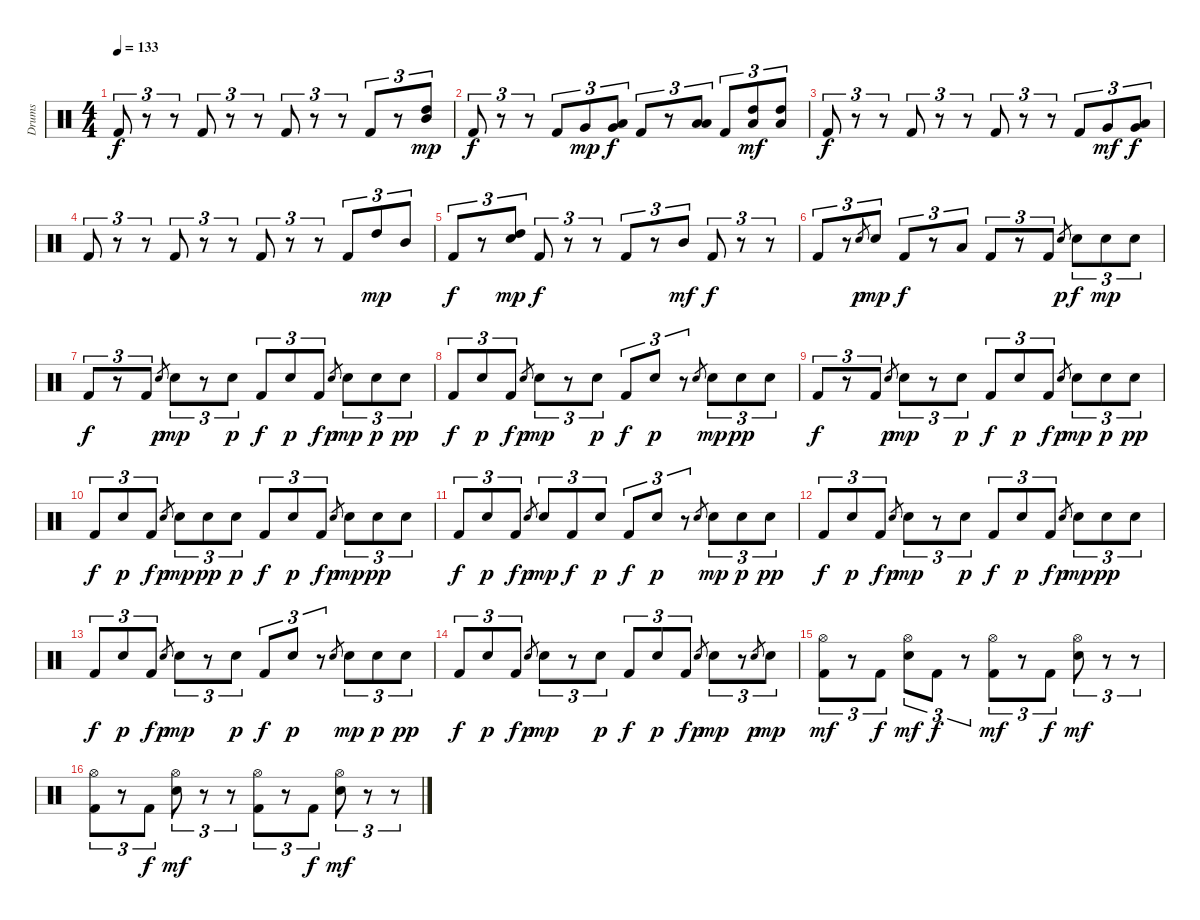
\track ("Drums" "Drums") {instrument percussion}
\staff {score}
\articulation defaults
\ts (4 4)
\tempo 133
\clef neutral
\ks c "Kick (hit) 2".8{tu (3 2) dy f}
r.8{tu (3 2)} r.8{tu (3 2)} "Kick (hit) 2".8{tu (3 2)} r.8{tu (3 2)} r.8{tu (3 2)} "Kick (hit) 2".8{tu (3 2)} r.8{tu (3 2)} r.8{tu (3 2)} "Kick (hit) 2".8{tu (3 2)} r.8{tu (3 2)} ("Mid Tom (hit)" "High Tom (hit)").8{tu (3 2) dy mp} |
"Kick (hit) 2".8{tu (3 2) dy f} r.8{tu (3 2)} r.8{tu (3 2)} "Kick (hit) 2".8{tu (3 2)} "Very Low Tom (hit)".8{tu (3 2) dy mp} ("Low Floor Tom (hit)" "Very Low Tom (hit)").8{tu (3 2) dy f} "Kick (hit) 2".8{tu (3 2)} r.8{tu (3 2)} ("Low Tom (hit)" "Low Floor Tom (hit)").8{tu (3 2)} "Kick (hit) 2".8{tu (3 2)} ("High Tom (hit)" "Low Tom (hit)").8{tu (3 2) dy mf} ("High Tom (hit)" "Low Tom (hit)").8{tu (3 2)} |
"Kick (hit) 2".8{tu (3 2) dy f} r.8{tu (3 2)} r.8{tu (3 2)} "Kick (hit) 2".8{tu (3 2)} r.8{tu (3 2)} r.8{tu (3 2)} "Kick (hit) 2".8{tu (3 2)} r.8{tu (3 2)} r.8{tu (3 2)} "Kick (hit) 2".8{tu (3 2)} "Very Low Tom (hit)".8{tu (3 2) dy mf} ("Low Tom (hit)" "Very Low Tom (hit)").8{tu (3 2) dy f} |
"Kick (hit) 2".8{tu (3 2)} r.8{tu (3 2)} r.8{tu (3 2)} "Kick (hit) 2".8{tu (3 2)} r.8{tu (3 2)} r.8{tu (3 2)} "Kick (hit) 2".8{tu (3 2)} r.8{tu (3 2)} r.8{tu (3 2)} "Kick (hit) 2".8{tu (3 2)} "High Tom (hit)".8{tu (3 2) dy mp} "Mid Tom (hit)".8{tu (3 2)} |
"Kick (hit) 2".8{tu (3 2) dy f} r.8{tu (3 2)} ("Electric Snare (hit)" "High Tom (hit)").8{tu (3 2) dy mp} "Kick (hit) 2".8{tu (3 2) dy f} r.8{tu (3 2)} r.8{tu (3 2)} "Kick (hit) 2".8{tu (3 2)} r.8{tu (3 2)} "Mid Tom (hit)".8{tu (3 2) dy mf} "Kick (hit) 2".8{tu (3 2) dy f} r.8{tu (3 2)} r.8{tu (3 2)} |
"Kick (hit) 2".8{tu (3 2)} r.8{tu (3 2)} "Electric Snare (hit)".8{gr dy p} "Electric Snare (hit)".8{tu (3 2) dy mp} "Kick (hit) 2".8{tu (3 2) dy f} r.8{tu (3 2)} "Low Tom (hit)".8{tu (3 2)} "Kick (hit) 2".8{tu (3 2)} r.8{tu (3 2)} "Kick (hit) 2".8{tu (3 2)} "Electric Snare (hit)".8{gr dy p} "Electric Snare (hit)".8{tu (3 2) dy f} "Electric Snare (hit)".8{tu (3 2) dy mp} "Electric Snare (hit)".8{tu (3 2)} |
"Kick (hit) 2".8{tu (3 2) dy f} r.8{tu (3 2)} "Kick (hit) 2".8{tu (3 2)} "Electric Snare (hit)".8{gr dy p} "Electric Snare (hit)".8{tu (3 2) dy mp} r.8{tu (3 2)} "Electric Snare (hit)".8{tu (3 2) dy p} "Kick (hit) 2".8{tu (3 2) dy f} "Electric Snare (hit)".8{tu (3 2) dy p} "Kick (hit) 2".8{tu (3 2) dy f} "Electric Snare (hit)".8{gr dy p} "Electric Snare (hit)".8{tu (3 2) dy mp} "Electric Snare (hit)".8{tu (3 2) dy p} "Electric Snare (hit)".8{tu (3 2) dy pp} |
"Kick (hit) 2".8{tu (3 2) dy f} "Electric Snare (hit)".8{tu (3 2) dy p} "Kick (hit) 2".8{tu (3 2) dy f} "Electric Snare (hit)".8{gr dy p} "Electric Snare (hit)".8{tu (3 2) dy mp} r.8{tu (3 2)} "Electric Snare (hit)".8{tu (3 2) dy p} "Kick (hit) 2".8{tu (3 2) dy f} "Electric Snare (hit)".8{tu (3 2) dy p} r.8{tu (3 2)} "Electric Snare (hit)".8{gr} "Electric Snare (hit)".8{tu (3 2) dy mp} "Electric Snare (hit)".8{tu (3 2) dy pp} "Electric Snare (hit)".8{tu (3 2)} |
"Kick (hit) 2".8{tu (3 2) dy f} r.8{tu (3 2)} "Kick (hit) 2".8{tu (3 2)} "Electric Snare (hit)".8{gr dy p} "Electric Snare (hit)".8{tu (3 2) dy mp} r.8{tu (3 2)} "Electric Snare (hit)".8{tu (3 2) dy p} "Kick (hit) 2".8{tu (3 2) dy f} "Electric Snare (hit)".8{tu (3 2) dy p} "Kick (hit) 2".8{tu (3 2) dy f} "Electric Snare (hit)".8{gr dy p} "Electric Snare (hit)".8{tu (3 2) dy mp} "Electric Snare (hit)".8{tu (3 2) dy p} "Electric Snare (hit)".8{tu (3 2) dy pp} |
"Kick (hit) 2".8{tu (3 2) dy f} "Electric Snare (hit)".8{tu (3 2) dy p} "Kick (hit) 2".8{tu (3 2) dy f} "Electric Snare (hit)".8{gr dy p} "Electric Snare (hit)".8{tu (3 2) dy mp} "Electric Snare (hit)".8{tu (3 2) dy pp} "Electric Snare (hit)".8{tu (3 2) dy p} "Kick (hit) 2".8{tu (3 2) dy f} "Electric Snare (hit)".8{tu (3 2) dy p} "Kick (hit) 2".8{tu (3 2) dy f} "Electric Snare (hit)".8{gr dy p} "Electric Snare (hit)".8{tu (3 2) dy mp} "Electric Snare (hit)".8{tu (3 2) dy pp} "Electric Snare (hit)".8{tu (3 2)} |
"Kick (hit) 2".8{tu (3 2) dy f} "Electric Snare (hit)".8{tu (3 2) dy p} "Kick (hit) 2".8{tu (3 2) dy f} "Electric Snare (hit)".8{gr dy p} "Electric Snare (hit)".8{tu (3 2) dy mp} "Kick (hit) 2".8{tu (3 2) dy f} "Electric Snare (hit)".8{tu (3 2) dy p} "Kick (hit) 2".8{tu (3 2) dy f} "Electric Snare (hit)".8{tu (3 2) dy p} r.8{tu (3 2)} "Electric Snare (hit)".8{gr} "Electric Snare (hit)".8{tu (3 2) dy mp} "Electric Snare (hit)".8{tu (3 2) dy p} "Electric Snare (hit)".8{tu (3 2) dy pp} |
"Kick (hit) 2".8{tu (3 2) dy f} "Electric Snare (hit)".8{tu (3 2) dy p} "Kick (hit) 2".8{tu (3 2) dy f} "Electric Snare (hit)".8{gr dy p} "Electric Snare (hit)".8{tu (3 2) dy mp} r.8{tu (3 2)} "Electric Snare (hit)".8{tu (3 2) dy p} "Kick (hit) 2".8{tu (3 2) dy f} "Electric Snare (hit)".8{tu (3 2) dy p} "Kick (hit) 2".8{tu (3 2) dy f} "Electric Snare (hit)".8{gr dy p} "Electric Snare (hit)".8{tu (3 2) dy mp} "Electric Snare (hit)".8{tu (3 2) dy pp} "Electric Snare (hit)".8{tu (3 2)} |
"Kick (hit) 2".8{tu (3 2) dy f} "Electric Snare (hit)".8{tu (3 2) dy p} "Kick (hit) 2".8{tu (3 2) dy f} "Electric Snare (hit)".8{gr dy p} "Electric Snare (hit)".8{tu (3 2) dy mp} r.8{tu (3 2)} "Electric Snare (hit)".8{tu (3 2) dy p} "Kick (hit) 2".8{tu (3 2) dy f} "Electric Snare (hit)".8{tu (3 2) dy p} r.8{tu (3 2)} "Electric Snare (hit)".8{gr} "Electric Snare (hit)".8{tu (3 2) dy mp} "Electric Snare (hit)".8{tu (3 2) dy p} "Electric Snare (hit)".8{tu (3 2) dy pp} |
"Kick (hit) 2".8{tu (3 2) dy f} "Electric Snare (hit)".8{tu (3 2) dy p} "Kick (hit) 2".8{tu (3 2) dy f} "Electric Snare (hit)".8{gr dy p} "Electric Snare (hit)".8{tu (3 2) dy mp} r.8{tu (3 2)} "Electric Snare (hit)".8{tu (3 2) dy p} "Kick (hit) 2".8{tu (3 2) dy f} "Electric Snare (hit)".8{tu (3 2) dy p} "Kick (hit) 2".8{tu (3 2) dy f} "Electric Snare (hit)".8{gr dy p} "Electric Snare (hit)".8{tu (3 2) dy mp} r.8{tu (3 2)} "Electric Snare (hit)".8{gr dy p} "Electric Snare (hit)".8{tu (3 2) dy mp} |
("Hi-Hat (open)" "Kick (hit) 2").8{tu (3 2) dy mf} r.8{tu (3 2)} "Kick (hit) 2".8{tu (3 2) dy f} ("Hi-Hat (open)" "Electric Snare (hit)").8{tu (3 2) dy mf} "Kick (hit) 2".8{tu (3 2) dy f} r.8{tu (3 2)} ("Hi-Hat (open)" "Kick (hit) 2").8{tu (3 2) dy mf} r.8{tu (3 2)} "Kick (hit) 2".8{tu (3 2) dy f} ("Hi-Hat (open)" "Electric Snare (hit)").8{tu (3 2) dy mf} r.8{tu (3 2)} r.8{tu (3 2)} |
("Hi-Hat (open)" "Kick (hit) 2").8{tu (3 2)} r.8{tu (3 2)} "Kick (hit) 2".8{tu (3 2) dy f} ("Hi-Hat (open)" "Electric Snare (hit)").8{tu (3 2) dy mf} r.8{tu (3 2)} r.8{tu (3 2)} ("Hi-Hat (open)" "Kick (hit) 2").8{tu (3 2)} r.8{tu (3 2)} "Kick (hit) 2".8{tu (3 2) dy f} ("Hi-Hat (open)" "Electric Snare (hit)").8{tu (3 2) dy mf} r.8{tu (3 2)} r.8{tu (3 2)}
